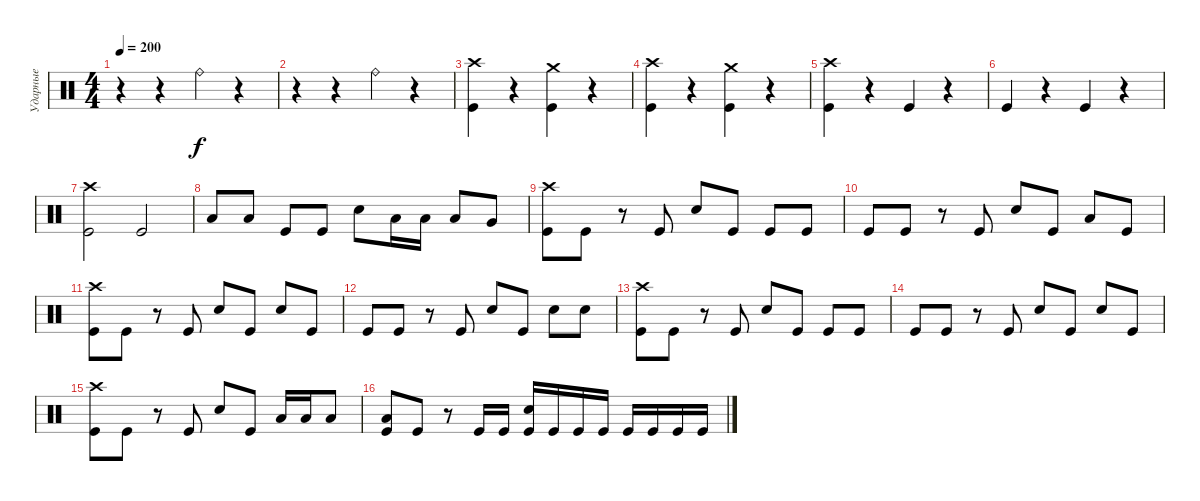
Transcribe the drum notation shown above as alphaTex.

\track ("Ударные" "Ударные") {instrument percussion}
\staff {score}
\articulation defaults
\ts (4 4)
\tempo 200
\clef neutral
\ks c
r.4{dy f} r.4 "Ride (bell)".4 r.4 |
r.4 r.4 "Ride (bell)".4 r.4 |
("Crash high (hit)" "Kick (hit)").4 r.4 ("Crash medium (hit)" "Kick (hit)").4 r.4 |
("Crash high (hit)" "Kick (hit)").4 r.4 ("Crash medium (hit)" "Kick (hit)").4 r.4 |
("Crash high (hit)" "Kick (hit)").4 r.4 "Kick (hit)".4 r.4 |
"Kick (hit)".4 r.4 "Kick (hit)".4 r.4 |
("Crash high (hit)" "Kick (hit)").2 "Kick (hit)".2 |
"Low Tom (hit)".8 "Low Tom (hit)".8 "Kick (hit)".8 "Kick (hit)".8 "Electric Snare (hit)".8 "Low Tom (hit)".16 "Low Tom (hit)".16 "Low Tom (hit)".8 "Very Low Tom (hit)".8 |
("Crash high (hit)" "Kick (hit)").8 "Kick (hit)".8 r.8 "Kick (hit)".8 "Electric Snare (hit)".8 "Kick (hit)".8 "Kick (hit)".8 "Kick (hit)".8 |
"Kick (hit)".8 "Kick (hit)".8 r.8 "Kick (hit)".8 "Electric Snare (hit)".8 "Kick (hit)".8 "Low Tom (hit)".8 "Kick (hit)".8 |
("Crash high (hit)" "Kick (hit)").8 "Kick (hit)".8 r.8 "Kick (hit)".8 "Electric Snare (hit)".8 "Kick (hit)".8 "Electric Snare (hit)".8 "Kick (hit)".8 |
"Kick (hit)".8 "Kick (hit)".8 r.8 "Kick (hit)".8 "Electric Snare (hit)".8 "Kick (hit)".8 "Electric Snare (hit)".8 "Electric Snare (hit)".8 |
("Crash high (hit)" "Kick (hit)").8 "Kick (hit)".8 r.8 "Kick (hit)".8 "Electric Snare (hit)".8 "Kick (hit)".8 "Kick (hit)".8 "Kick (hit)".8 |
"Kick (hit)".8 "Kick (hit)".8 r.8 "Kick (hit)".8 "Electric Snare (hit)".8 "Kick (hit)".8 "Electric Snare (hit)".8 "Kick (hit)".8 |
("Crash high (hit)" "Kick (hit)").8 "Kick (hit)".8 r.8 "Kick (hit)".8 "Electric Snare (hit)".8 "Kick (hit)".8 "Low Tom (hit)".16 "Low Tom (hit)".16 "Low Tom (hit)".8 |
("Low Tom (hit)" "Kick (hit)").8 "Kick (hit)".8 r.8 "Kick (hit)".16 "Kick (hit)".16 ("Electric Snare (hit)" "Kick (hit)").16 "Kick (hit)".16 "Kick (hit)".16 "Kick (hit)".16 "Kick (hit)".16 "Kick (hit)".16 "Kick (hit)".16 "Kick (hit)".16
